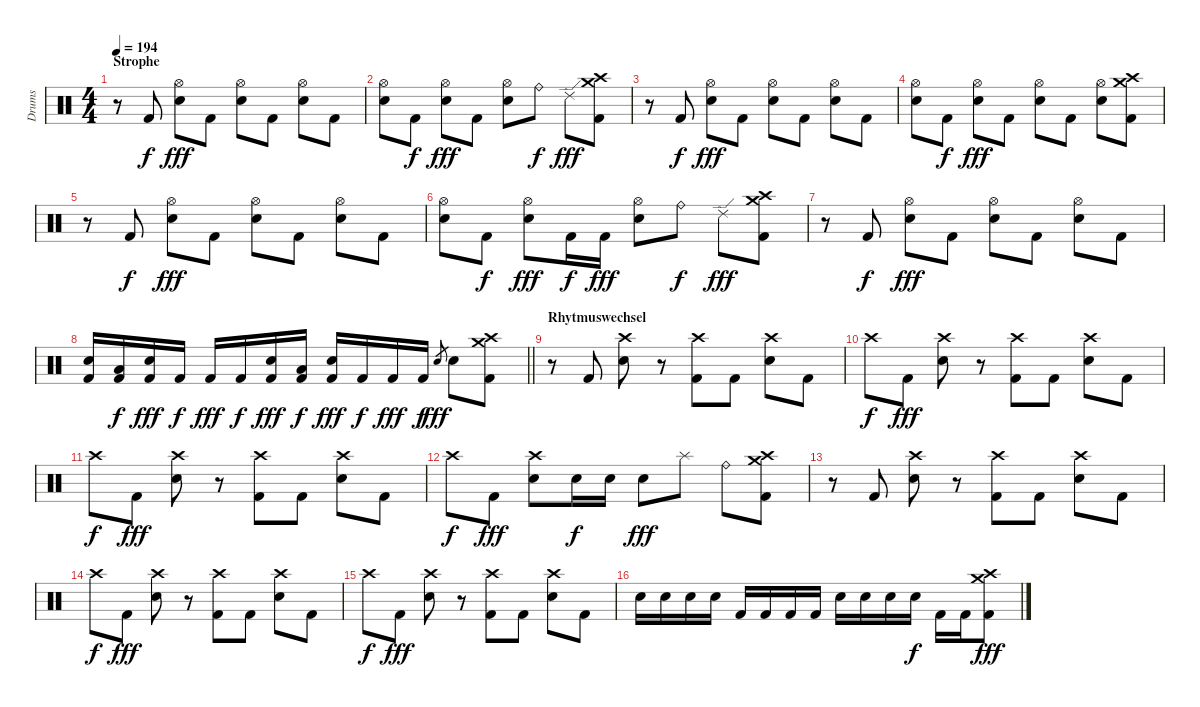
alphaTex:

\track ("Drums" "Drums") {instrument percussion}
\staff {score}
\articulation defaults
\ts (4 4)
\section ("" "Strophe")
\tempo 194
\clef neutral
\ks c
r.8{dy f} "Kick (hit) 2".8 ("Hi-Hat (open)" "Electric Snare (hit)").8{dy fff} "Kick (hit) 2".8 ("Hi-Hat (open)" "Electric Snare (hit)").8 "Kick (hit) 2".8 ("Hi-Hat (open)" "Electric Snare (hit)").8 "Kick (hit) 2".8 |
("Hi-Hat (open)" "Electric Snare (hit)").8 "Kick (hit) 2".8{dy f} ("Hi-Hat (open)" "Electric Snare (hit)").8{dy fff} "Kick (hit) 2".8 ("Hi-Hat (open)" "Electric Snare (hit)").8 "Ride (bell)".8{dy f} "Ride (edge) 2".8{dy fff} ("Crash medium (hit)" "Crash high (hit)" "Kick (hit) 2").8 |
r.8 "Kick (hit) 2".8{dy f} ("Hi-Hat (open)" "Electric Snare (hit)").8{dy fff} "Kick (hit) 2".8 ("Hi-Hat (open)" "Electric Snare (hit)").8 "Kick (hit) 2".8 ("Hi-Hat (open)" "Electric Snare (hit)").8 "Kick (hit) 2".8 |
("Hi-Hat (open)" "Electric Snare (hit)").8 "Kick (hit) 2".8{dy f} ("Hi-Hat (open)" "Electric Snare (hit)").8{dy fff} "Kick (hit) 2".8 ("Hi-Hat (open)" "Electric Snare (hit)").8 "Kick (hit) 2".8 ("Hi-Hat (open)" "Electric Snare (hit)").8 ("Crash medium (hit)" "Crash high (hit)" "Kick (hit) 2").8 |
r.8 "Kick (hit) 2".8{dy f} ("Hi-Hat (open)" "Electric Snare (hit)").8{dy fff} "Kick (hit) 2".8 ("Hi-Hat (open)" "Electric Snare (hit)").8 "Kick (hit) 2".8 ("Hi-Hat (open)" "Electric Snare (hit)").8 "Kick (hit) 2".8 |
("Hi-Hat (open)" "Electric Snare (hit)").8 "Kick (hit) 2".8{dy f} ("Hi-Hat (open)" "Electric Snare (hit)").8{dy fff} "Kick (hit) 2".16{dy f} "Kick (hit) 2".16{dy fff} ("Hi-Hat (open)" "Electric Snare (hit)").8 "Ride (bell)".8{dy f} "Ride (edge) 2".8{dy fff} ("Crash medium (hit)" "Crash high (hit)" "Kick (hit) 2").8 |
r.8 "Kick (hit) 2".8{dy f} ("Hi-Hat (open)" "Electric Snare (hit)").8{dy fff} "Kick (hit) 2".8 ("Hi-Hat (open)" "Electric Snare (hit)").8 "Kick (hit) 2".8 ("Hi-Hat (open)" "Electric Snare (hit)").8 "Kick (hit) 2".8 |
\barLineRight lightlight
("Electric Snare (hit)" "Kick (hit) 2").16 ("Low Tom (hit)" "Kick (hit) 2").16{dy f} ("Electric Snare (hit)" "Kick (hit) 2").16{dy fff} "Kick (hit) 2".16{dy f} "Kick (hit) 2".16{dy fff} "Kick (hit) 2".16{dy f} ("Electric Snare (hit)" "Kick (hit) 2").16{dy fff} ("Low Tom (hit)" "Kick (hit) 2").16{dy f} ("Electric Snare (hit)" "Kick (hit) 2").16{dy fff} "Kick (hit) 2".16{dy f} "Kick (hit) 2".16{dy fff} "Kick (hit) 2".16{dy f} "Electric Snare (hit)".8{gr dy fff} "Electric Snare (hit)".8 ("Crash medium (hit)" "Crash high (hit)" "Kick (hit) 2").8 |
\section ("" "Rhytmuswechsel")
r.8 "Kick (hit) 2".8 ("Crash high (hit)" "Electric Snare (hit)").8 r.8 ("Crash high (hit)" "Kick (hit) 2").8 "Kick (hit) 2".8 ("Crash high (hit)" "Electric Snare (hit)").8 "Kick (hit) 2".8 |
"Crash high (hit)".8{dy f} "Kick (hit) 2".8{dy fff} ("Crash high (hit)" "Electric Snare (hit)").8 r.8 ("Crash high (hit)" "Kick (hit) 2").8 "Kick (hit) 2".8 ("Crash high (hit)" "Electric Snare (hit)").8 "Kick (hit) 2".8 |
"Crash high (hit)".8{dy f} "Kick (hit) 2".8{dy fff} ("Crash high (hit)" "Electric Snare (hit)").8 r.8 ("Crash high (hit)" "Kick (hit) 2").8 "Kick (hit) 2".8 ("Crash high (hit)" "Electric Snare (hit)").8 "Kick (hit) 2".8 |
"Crash high (hit)".8{dy f} "Kick (hit) 2".8{dy fff} ("Crash high (hit)" "Electric Snare (hit)").8 "Electric Snare (hit)".16{dy f} "Electric Snare (hit)".16 "Electric Snare (hit)".8{dy fff} "Splash (hit)".8 "Ride (bell)".8 ("Crash medium (hit)" "Crash high (hit)" "Kick (hit) 2").8 |
r.8 "Kick (hit) 2".8 ("Crash high (hit)" "Electric Snare (hit)").8 r.8 ("Crash high (hit)" "Kick (hit) 2").8 "Kick (hit) 2".8 ("Crash high (hit)" "Electric Snare (hit)").8 "Kick (hit) 2".8 |
"Crash high (hit)".8{dy f} "Kick (hit) 2".8{dy fff} ("Crash high (hit)" "Electric Snare (hit)").8 r.8 ("Crash high (hit)" "Kick (hit) 2").8 "Kick (hit) 2".8 ("Crash high (hit)" "Electric Snare (hit)").8 "Kick (hit) 2".8 |
"Crash high (hit)".8{dy f} "Kick (hit) 2".8{dy fff} ("Crash high (hit)" "Electric Snare (hit)").8 r.8 ("Crash high (hit)" "Kick (hit) 2").8 "Kick (hit) 2".8 ("Crash high (hit)" "Electric Snare (hit)").8 "Kick (hit) 2".8 |
"Electric Snare (hit)".16 "Electric Snare (hit)".16 "Electric Snare (hit)".16 "Electric Snare (hit)".16 "Kick (hit) 2".16 "Kick (hit) 2".16 "Kick (hit) 2".16 "Kick (hit) 2".16 "Electric Snare (hit)".16 "Electric Snare (hit)".16 "Electric Snare (hit)".16 "Electric Snare (hit)".16{dy f} "Kick (hit) 2".16 "Kick (hit) 2".16 ("Crash medium (hit)" "Crash high (hit)" "Kick (hit) 2").8{dy fff}
